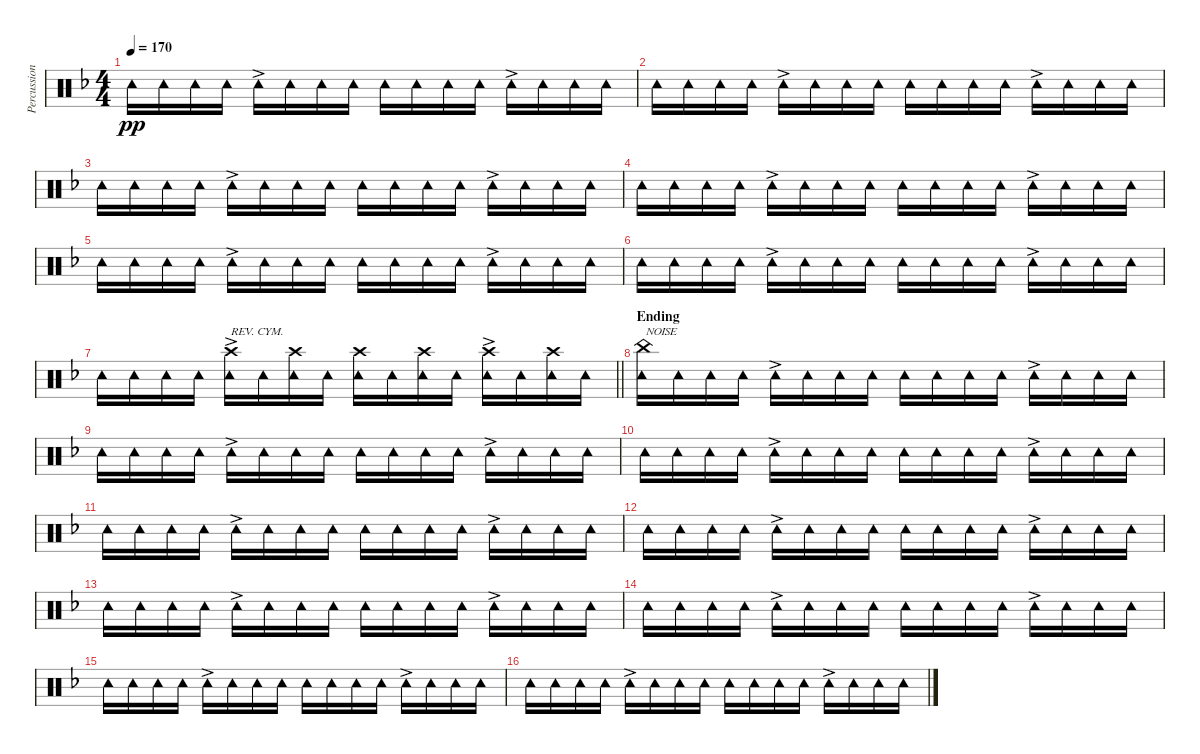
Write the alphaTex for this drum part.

\track ("Percussion (Tainaka Ritsu)" "Percussion") {instrument percussion}
\staff {score}
\articulation defaults
\ts (4 4)
\tempo 170
\clef neutral
\ks f "Tambourine (hit)".16{dy pp} "Tambourine (hit)".16 "Tambourine (hit)".16 "Tambourine (hit)".16 "Tambourine (hit)"{ac}.16 "Tambourine (hit)".16 "Tambourine (hit)".16 "Tambourine (hit)".16 "Tambourine (hit)".16 "Tambourine (hit)".16 "Tambourine (hit)".16 "Tambourine (hit)".16 "Tambourine (hit)"{ac}.16 "Tambourine (hit)".16 "Tambourine (hit)".16 "Tambourine (hit)".16
|
"Tambourine (hit)".16 "Tambourine (hit)".16 "Tambourine (hit)".16 "Tambourine (hit)".16 "Tambourine (hit)"{ac}.16 "Tambourine (hit)".16 "Tambourine (hit)".16 "Tambourine (hit)".16 "Tambourine (hit)".16 "Tambourine (hit)".16 "Tambourine (hit)".16 "Tambourine (hit)".16 "Tambourine (hit)"{ac}.16 "Tambourine (hit)".16 "Tambourine (hit)".16 "Tambourine (hit)".16 |
"Tambourine (hit)".16 "Tambourine (hit)".16 "Tambourine (hit)".16 "Tambourine (hit)".16 "Tambourine (hit)"{ac}.16 "Tambourine (hit)".16 "Tambourine (hit)".16 "Tambourine (hit)".16 "Tambourine (hit)".16 "Tambourine (hit)".16 "Tambourine (hit)".16 "Tambourine (hit)".16 "Tambourine (hit)"{ac}.16 "Tambourine (hit)".16 "Tambourine (hit)".16 "Tambourine (hit)".16 |
"Tambourine (hit)".16 "Tambourine (hit)".16 "Tambourine (hit)".16 "Tambourine (hit)".16 "Tambourine (hit)"{ac}.16 "Tambourine (hit)".16 "Tambourine (hit)".16 "Tambourine (hit)".16 "Tambourine (hit)".16 "Tambourine (hit)".16 "Tambourine (hit)".16 "Tambourine (hit)".16 "Tambourine (hit)"{ac}.16 "Tambourine (hit)".16 "Tambourine (hit)".16 "Tambourine (hit)".16 |
"Tambourine (hit)".16 "Tambourine (hit)".16 "Tambourine (hit)".16 "Tambourine (hit)".16 "Tambourine (hit)"{ac}.16 "Tambourine (hit)".16 "Tambourine (hit)".16 "Tambourine (hit)".16 "Tambourine (hit)".16 "Tambourine (hit)".16 "Tambourine (hit)".16 "Tambourine (hit)".16 "Tambourine (hit)"{ac}.16 "Tambourine (hit)".16 "Tambourine (hit)".16 "Tambourine (hit)".16 |
"Tambourine (hit)".16 "Tambourine (hit)".16 "Tambourine (hit)".16 "Tambourine (hit)".16 "Tambourine (hit)"{ac}.16 "Tambourine (hit)".16 "Tambourine (hit)".16 "Tambourine (hit)".16 "Tambourine (hit)".16 "Tambourine (hit)".16 "Tambourine (hit)".16 "Tambourine (hit)".16 "Tambourine (hit)"{ac}.16 "Tambourine (hit)".16 "Tambourine (hit)".16 "Tambourine (hit)".16 |
\barLineRight lightlight "Tambourine (hit)".16 "Tambourine (hit)".16 "Tambourine (hit)".16 "Tambourine (hit)".16
("Crash high (hit)" "Tambourine (hit)"{ac}).16{txt "REV. CYM."} "Tambourine (hit)".16 ("Crash high (hit)" "Tambourine (hit)").16 "Tambourine (hit)".16 ("Crash high (hit)" "Tambourine (hit)").16 "Tambourine (hit)".16 ("Crash high (hit)" "Tambourine (hit)").16 "Tambourine (hit)".16 ("Crash high (hit)" "Tambourine (hit)"{ac}).16 "Tambourine (hit)".16 ("Crash high (hit)" "Tambourine (hit)").16 "Tambourine (hit)".16 |
\section ("" "Ending")
("China (hit)" "Tambourine (hit)").16{txt "NOISE"} "Tambourine (hit)".16 "Tambourine (hit)".16 "Tambourine (hit)".16 "Tambourine (hit)"{ac}.16 "Tambourine (hit)".16 "Tambourine (hit)".16 "Tambourine (hit)".16 "Tambourine (hit)".16 "Tambourine (hit)".16 "Tambourine (hit)".16 "Tambourine (hit)".16 "Tambourine (hit)"{ac}.16 "Tambourine (hit)".16 "Tambourine (hit)".16 "Tambourine (hit)".16 |
"Tambourine (hit)".16 "Tambourine (hit)".16 "Tambourine (hit)".16 "Tambourine (hit)".16 "Tambourine (hit)"{ac}.16 "Tambourine (hit)".16 "Tambourine (hit)".16 "Tambourine (hit)".16 "Tambourine (hit)".16 "Tambourine (hit)".16 "Tambourine (hit)".16 "Tambourine (hit)".16 "Tambourine (hit)"{ac}.16 "Tambourine (hit)".16 "Tambourine (hit)".16 "Tambourine (hit)".16 |
"Tambourine (hit)".16 "Tambourine (hit)".16 "Tambourine (hit)".16 "Tambourine (hit)".16 "Tambourine (hit)"{ac}.16 "Tambourine (hit)".16 "Tambourine (hit)".16 "Tambourine (hit)".16 "Tambourine (hit)".16 "Tambourine (hit)".16 "Tambourine (hit)".16 "Tambourine (hit)".16 "Tambourine (hit)"{ac}.16 "Tambourine (hit)".16 "Tambourine (hit)".16 "Tambourine (hit)".16 |
"Tambourine (hit)".16 "Tambourine (hit)".16 "Tambourine (hit)".16 "Tambourine (hit)".16 "Tambourine (hit)"{ac}.16 "Tambourine (hit)".16 "Tambourine (hit)".16 "Tambourine (hit)".16 "Tambourine (hit)".16 "Tambourine (hit)".16 "Tambourine (hit)".16 "Tambourine (hit)".16 "Tambourine (hit)"{ac}.16 "Tambourine (hit)".16 "Tambourine (hit)".16 "Tambourine (hit)".16 |
"Tambourine (hit)".16 "Tambourine (hit)".16 "Tambourine (hit)".16 "Tambourine (hit)".16 "Tambourine (hit)"{ac}.16 "Tambourine (hit)".16 "Tambourine (hit)".16 "Tambourine (hit)".16 "Tambourine (hit)".16 "Tambourine (hit)".16 "Tambourine (hit)".16 "Tambourine (hit)".16 "Tambourine (hit)"{ac}.16 "Tambourine (hit)".16 "Tambourine (hit)".16 "Tambourine (hit)".16 |
"Tambourine (hit)".16 "Tambourine (hit)".16 "Tambourine (hit)".16 "Tambourine (hit)".16 "Tambourine (hit)"{ac}.16 "Tambourine (hit)".16 "Tambourine (hit)".16 "Tambourine (hit)".16 "Tambourine (hit)".16 "Tambourine (hit)".16 "Tambourine (hit)".16 "Tambourine (hit)".16 "Tambourine (hit)"{ac}.16 "Tambourine (hit)".16 "Tambourine (hit)".16 "Tambourine (hit)".16 |
"Tambourine (hit)".16 "Tambourine (hit)".16 "Tambourine (hit)".16 "Tambourine (hit)".16 "Tambourine (hit)"{ac}.16 "Tambourine (hit)".16 "Tambourine (hit)".16 "Tambourine (hit)".16 "Tambourine (hit)".16 "Tambourine (hit)".16 "Tambourine (hit)".16 "Tambourine (hit)".16 "Tambourine (hit)"{ac}.16 "Tambourine (hit)".16 "Tambourine (hit)".16 "Tambourine (hit)".16 |
"Tambourine (hit)".16 "Tambourine (hit)".16 "Tambourine (hit)".16 "Tambourine (hit)".16 "Tambourine (hit)"{ac}.16 "Tambourine (hit)".16 "Tambourine (hit)".16 "Tambourine (hit)".16 "Tambourine (hit)".16 "Tambourine (hit)".16 "Tambourine (hit)".16 "Tambourine (hit)".16 "Tambourine (hit)"{ac}.16 "Tambourine (hit)".16 "Tambourine (hit)".16 "Tambourine (hit)".16 |
"Tambourine (hit)".16 "Tambourine (hit)".16 "Tambourine (hit)".16 "Tambourine (hit)".16 "Tambourine (hit)"{ac}.16 "Tambourine (hit)".16 "Tambourine (hit)".16 "Tambourine (hit)".16 "Tambourine (hit)".16 "Tambourine (hit)".16 "Tambourine (hit)".16 "Tambourine (hit)".16 "Tambourine (hit)"{ac}.16 "Tambourine (hit)".16 "Tambourine (hit)".16 "Tambourine (hit)".16
